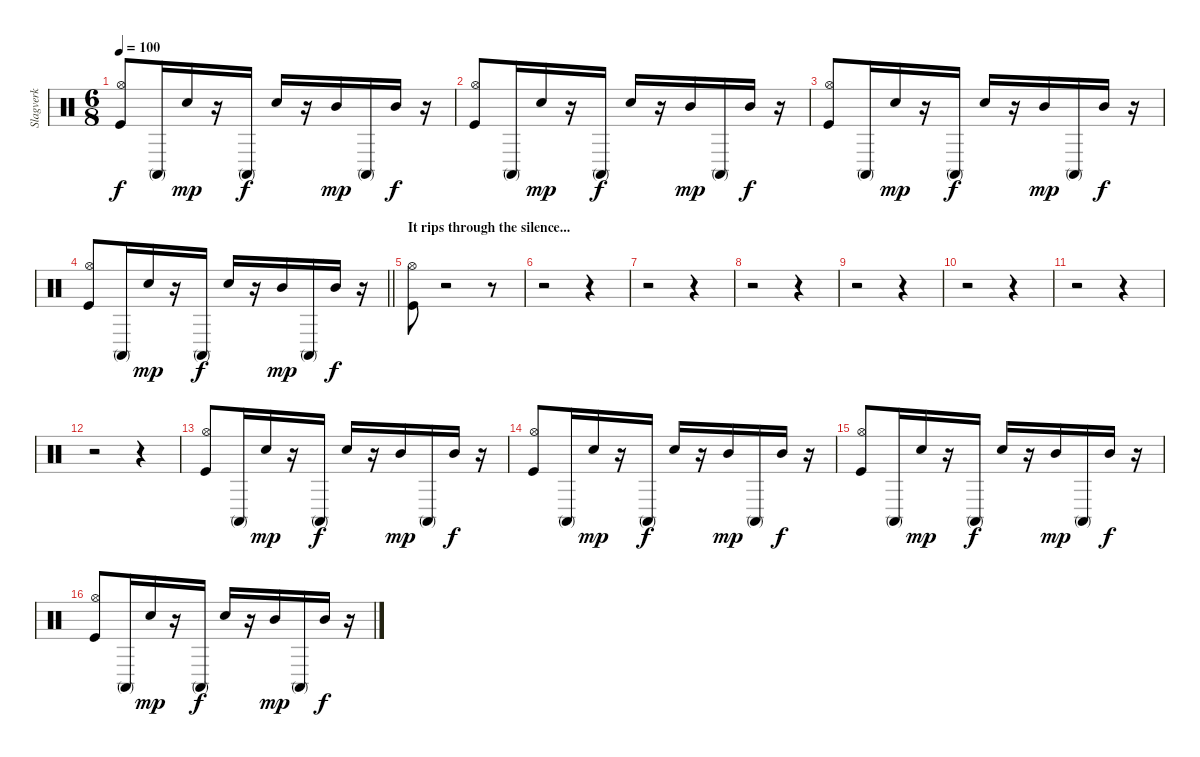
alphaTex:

\track ("Slagverk" "Slagverk") {instrument percussion}
\staff {score}
\articulation defaults
\ts (6 8)
\tempo 100
\clef neutral
\ks c
("Hi-Hat (open)" "Kick (hit)").8{dy f} "Conga high (mute)".16 "Snare (hit) 2".16{dy mp} r.16 "Conga high (mute)".16{dy f} "Snare (hit) 2".16 r.16 "Mid Tom (hit)".16{dy mp} "Conga high (mute)".16 "Mid Tom (hit)".16{dy f} r.16 |
("Hi-Hat (open)" "Kick (hit)").8 "Conga high (mute)".16 "Snare (hit) 2".16{dy mp} r.16 "Conga high (mute)".16{dy f} "Snare (hit) 2".16 r.16 "Mid Tom (hit)".16{dy mp} "Conga high (mute)".16 "Mid Tom (hit)".16{dy f} r.16 |
("Hi-Hat (open)" "Kick (hit)").8 "Conga high (mute)".16 "Snare (hit) 2".16{dy mp} r.16 "Conga high (mute)".16{dy f} "Snare (hit) 2".16 r.16 "Mid Tom (hit)".16{dy mp} "Conga high (mute)".16 "Mid Tom (hit)".16{dy f} r.16 |
\barLineRight lightlight
("Hi-Hat (open)" "Kick (hit)").8 "Conga high (mute)".16 "Snare (hit) 2".16{dy mp} r.16 "Conga high (mute)".16{dy f} "Snare (hit) 2".16 r.16 "Mid Tom (hit)".16{dy mp} "Conga high (mute)".16 "Mid Tom (hit)".16{dy f} r.16 |
\section ("" "It rips through the silence...")
("Hi-Hat (open)" "Kick (hit)").8 r.2 r.8 |
r.2 r.4 |
r.2 r.4 |
r.2 r.4 |
r.2 r.4 |
r.2 r.4 |
r.2 r.4 |
r.2 r.4 |
("Hi-Hat (open)" "Kick (hit)").8 "Conga high (mute)".16 "Snare (hit) 2".16{dy mp} r.16 "Conga high (mute)".16{dy f} "Snare (hit) 2".16 r.16 "Mid Tom (hit)".16{dy mp} "Conga high (mute)".16 "Mid Tom (hit)".16{dy f} r.16 |
("Hi-Hat (open)" "Kick (hit)").8 "Conga high (mute)".16 "Snare (hit) 2".16{dy mp} r.16 "Conga high (mute)".16{dy f} "Snare (hit) 2".16 r.16 "Mid Tom (hit)".16{dy mp} "Conga high (mute)".16 "Mid Tom (hit)".16{dy f} r.16 |
("Hi-Hat (open)" "Kick (hit)").8 "Conga high (mute)".16 "Snare (hit) 2".16{dy mp} r.16 "Conga high (mute)".16{dy f} "Snare (hit) 2".16 r.16 "Mid Tom (hit)".16{dy mp} "Conga high (mute)".16 "Mid Tom (hit)".16{dy f} r.16 |
("Hi-Hat (open)" "Kick (hit)").8 "Conga high (mute)".16 "Snare (hit) 2".16{dy mp} r.16 "Conga high (mute)".16{dy f} "Snare (hit) 2".16 r.16 "Mid Tom (hit)".16{dy mp} "Conga high (mute)".16 "Mid Tom (hit)".16{dy f} r.16
